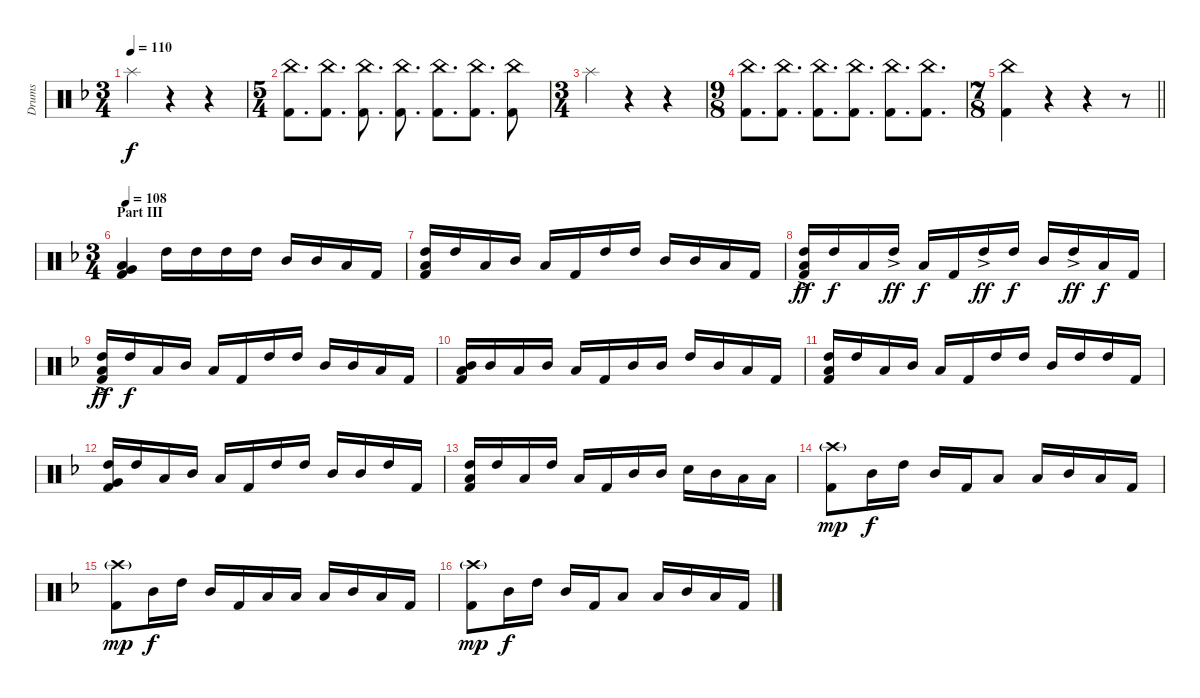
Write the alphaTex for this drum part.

\track ("Drums" "Drums") {instrument percussion}
\staff {score}
\articulation defaults
\ts (3 4)
\tempo 110
\clef neutral
\ks dminor "Splash (hit)".4{dy f}
r.4 r.4 |
\ts (5 4)
("China (hit)" "Kick (hit) 2").8{d} ("China (hit)" "Kick (hit) 2").8{d} ("China (hit)" "Kick (hit) 2").8{d} ("China (hit)" "Kick (hit) 2").8{d} ("China (hit)" "Kick (hit) 2").8{d} ("China (hit)" "Kick (hit) 2").8{d} ("China (hit)" "Kick (hit) 2").8 |
\ts (3 4)
"Splash (hit)".4 r.4 r.4 |
\ts (9 8)
("China (hit)" "Kick (hit) 2").8{d} ("China (hit)" "Kick (hit) 2").8{d} ("China (hit)" "Kick (hit) 2").8{d} ("China (hit)" "Kick (hit) 2").8{d} ("China (hit)" "Kick (hit) 2").8{d} ("China (hit)" "Kick (hit) 2").8{d} |
\ts (7 8)
\barLineRight lightlight
("China (hit)" "Kick (hit) 2").4 r.4 r.4 r.8 |
\ts (3 4)
\section ("" "Part III")
\tempo 108
("Low Tom (hit)" "Very Low Tom (hit)" "Kick (hit) 2").4 "High Tom (hit)".16 "High Tom (hit)".16 "High Tom (hit)".16 "High Tom (hit)".16 "Mid Tom (hit)".16 "Mid Tom (hit)".16 "Low Tom (hit)".16 "Kick (hit) 2".16 |
("High Tom (hit)" "Low Tom (hit)" "Kick (hit) 2").16 "High Tom (hit)".16 "Low Tom (hit)".16 "Mid Tom (hit)".16 "Low Tom (hit)".16 "Kick (hit) 2".16 "High Tom (hit)".16 "High Tom (hit)".16 "Mid Tom (hit)".16 "Mid Tom (hit)".16 "Low Tom (hit)".16 "Kick (hit) 2".16 |
("High Tom (hit)"{ac} "Low Tom (hit)" "Kick (hit) 2").16{dy ff} "High Tom (hit)".16{dy f} "Low Tom (hit)".16 "High Tom (hit)"{ac}.16{dy ff} "Low Tom (hit)".16{dy f} "Kick (hit) 2".16 "High Tom (hit)"{ac}.16{dy ff} "High Tom (hit)".16{dy f} "Mid Tom (hit)".16 "High Tom (hit)"{ac}.16{dy ff} "Low Tom (hit)".16{dy f} "Kick (hit) 2".16 |
("High Tom (hit)"{ac} "Low Tom (hit)" "Kick (hit) 2").16{dy ff} "High Tom (hit)".16{dy f} "Low Tom (hit)".16 "Mid Tom (hit)".16 "Low Tom (hit)".16 "Kick (hit) 2".16 "High Tom (hit)".16 "High Tom (hit)".16 "Mid Tom (hit)".16 "Mid Tom (hit)".16 "Low Tom (hit)".16 "Kick (hit) 2".16 |
("Mid Tom (hit)" "Low Tom (hit)" "Kick (hit) 2").16 "Mid Tom (hit)".16 "Low Tom (hit)".16 "Mid Tom (hit)".16 "Low Tom (hit)".16 "Kick (hit) 2".16 "Mid Tom (hit)".16 "Mid Tom (hit)".16 "High Tom (hit)".16 "Mid Tom (hit)".16 "Low Tom (hit)".16 "Kick (hit) 2".16 |
("High Tom (hit)" "Low Tom (hit)" "Kick (hit) 2").16 "High Tom (hit)".16 "Low Tom (hit)".16 "Mid Tom (hit)".16 "Low Tom (hit)".16 "Kick (hit) 2".16 "High Tom (hit)".16 "High Tom (hit)".16 "Mid Tom (hit)".16 "High Tom (hit)".16 "High Tom (hit)".16 "Kick (hit) 2".16 |
("High Tom (hit)" "Very Low Tom (hit)" "Kick (hit) 2").16 "High Tom (hit)".16 "Low Tom (hit)".16 "Mid Tom (hit)".16 "Low Tom (hit)".16 "Kick (hit) 2".16 "High Tom (hit)".16 "High Tom (hit)".16 "Mid Tom (hit)".16 "Mid Tom (hit)".16 "High Tom (hit)".16 "Kick (hit) 2".16 |
("High Tom (hit)" "Low Tom (hit)" "Kick (hit) 2").16 "High Tom (hit)".16 "Low Tom (hit)".16 "High Tom (hit)".16 "Low Tom (hit)".16 "Kick (hit) 2".16 "Mid Tom (hit)".16 "Mid Tom (hit)".16 "Snare (hit) 2".16 "Mid Tom (hit)".16 "Low Tom (hit)".16 "Low Tom (hit)".16 |
("Crash high (hit)"{g} "Kick (hit) 2").8{dy mp} "Mid Tom (hit)".16{dy f} "High Tom (hit)".16 "Mid Tom (hit)".16 "Kick (hit) 2".16 "Low Tom (hit)".8 "Low Tom (hit)".16 "Mid Tom (hit)".16 "Low Tom (hit)".16 "Kick (hit) 2".16 |
("Crash high (hit)"{g} "Kick (hit) 2").8{dy mp} "Mid Tom (hit)".16{dy f} "High Tom (hit)".16 "Mid Tom (hit)".16 "Kick (hit) 2".16 "Low Tom (hit)".16 "Low Tom (hit)".16 "Low Tom (hit)".16 "Mid Tom (hit)".16 "Low Tom (hit)".16 "Kick (hit) 2".16 |
("Crash high (hit)"{g} "Kick (hit) 2").8{dy mp} "Mid Tom (hit)".16{dy f} "High Tom (hit)".16 "Mid Tom (hit)".16 "Kick (hit) 2".16 "Low Tom (hit)".8 "Low Tom (hit)".16 "Mid Tom (hit)".16 "Low Tom (hit)".16 "Kick (hit) 2".16
